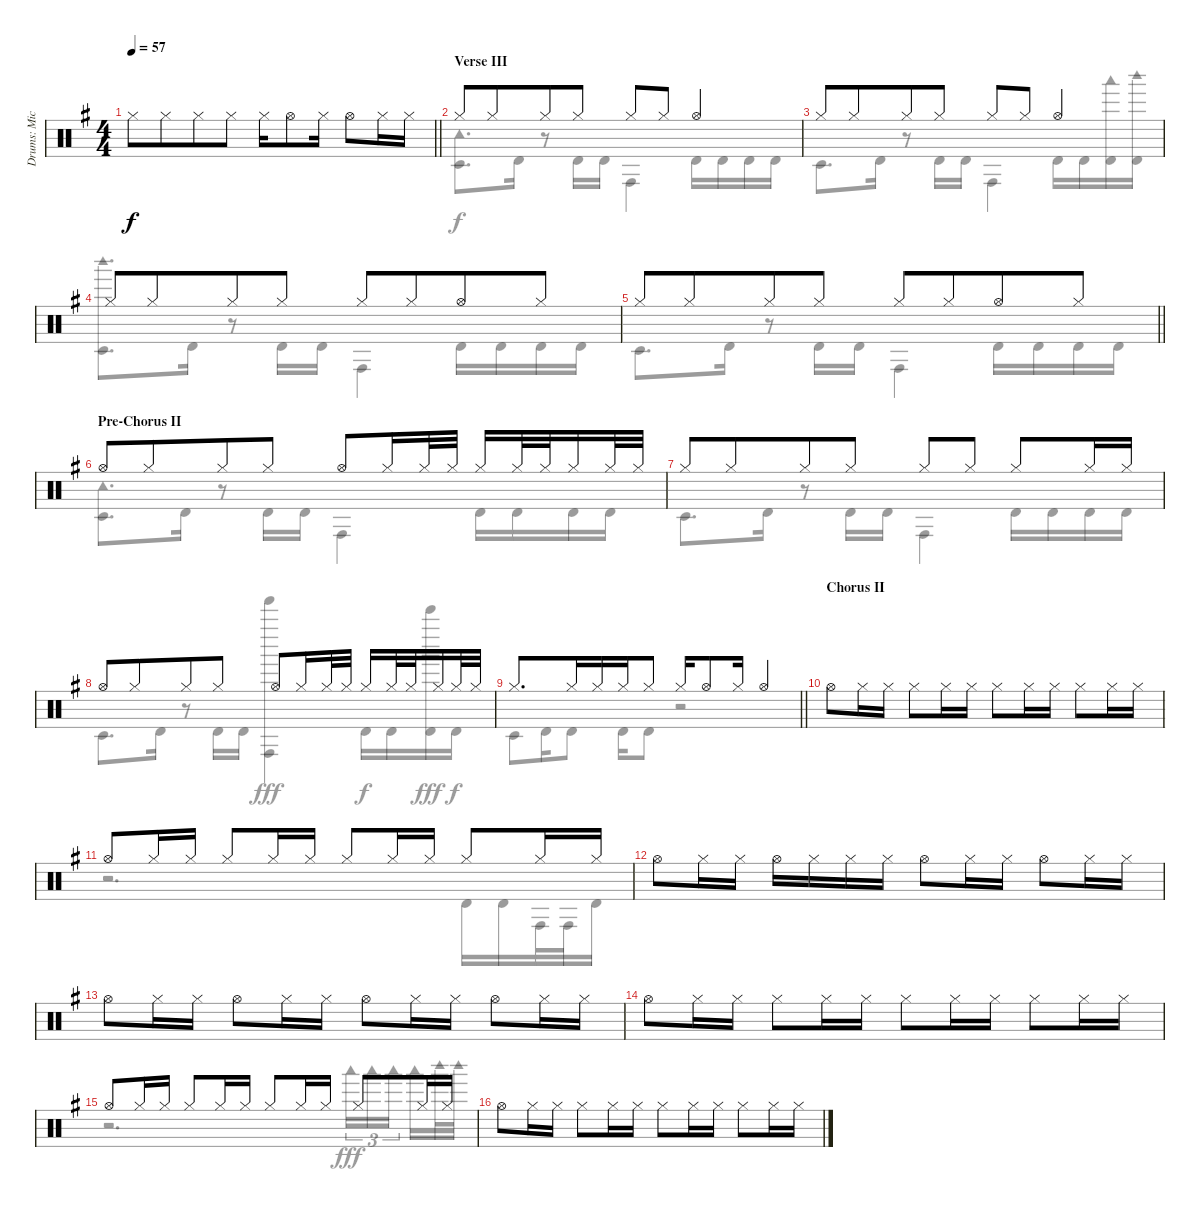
\track ("Drums: Mick" "Drums: Mic") {instrument percussion}
\staff {score}
\articulation defaults
\voice
\ts (4 4)
\tempo 57
\clef neutral
\barLineRight lightlight
\ks g "Hi-Hat (closed)".8{dy f} "Hi-Hat (closed)".8{beam merge} "Hi-Hat (closed)".8 "Hi-Hat (closed)".8 "Hi-Hat (closed)".16 "Hi-Hat (open)".8 "Hi-Hat (closed)".16 "Hi-Hat (open)".8 "Hi-Hat (closed)".16 "Hi-Hat (closed)".16
|
\section ("" "Verse III")
"Hi-Hat (closed)".8 "Hi-Hat (closed)".8{beam merge} "Hi-Hat (closed)".8 "Hi-Hat (closed)".8 "Hi-Hat (closed)".8 "Hi-Hat (closed)".8{beam merge} "Hi-Hat (open)".4 |
"Hi-Hat (closed)".8 "Hi-Hat (closed)".8{beam merge} "Hi-Hat (closed)".8 "Hi-Hat (closed)".8 "Hi-Hat (closed)".8 "Hi-Hat (closed)".8{beam merge} "Hi-Hat (open)".4 |
"Hi-Hat (closed)".8 "Hi-Hat (closed)".8{beam merge} "Hi-Hat (closed)".8 "Hi-Hat (closed)".8 "Hi-Hat (closed)".8 "Hi-Hat (closed)".8{beam merge} "Hi-Hat (open)".8 "Hi-Hat (closed)".8 |
\barLineRight lightlight "Hi-Hat (closed)".8 "Hi-Hat (closed)".8{beam merge} "Hi-Hat (closed)".8 "Hi-Hat (closed)".8 "Hi-Hat (closed)".8 "Hi-Hat (closed)".8{beam merge} "Hi-Hat (open)".8 "Hi-Hat (closed)".8
|
\section ("" "Pre-Chorus II")
"Hi-Hat (open)".8 "Hi-Hat (closed)".8{beam merge} "Hi-Hat (closed)".8 "Hi-Hat (closed)".8 "Hi-Hat (open)".8 "Hi-Hat (closed)".16{beam merge} "Hi-Hat (closed)".32 "Hi-Hat (closed)".32 "Hi-Hat (closed)".16 "Hi-Hat (closed)".32 "Hi-Hat (closed)".32 "Hi-Hat (closed)".16 "Hi-Hat (closed)".32 "Hi-Hat (closed)".32 |
"Hi-Hat (closed)".8 "Hi-Hat (closed)".8{beam merge} "Hi-Hat (closed)".8 "Hi-Hat (closed)".8 "Hi-Hat (closed)".8 "Hi-Hat (closed)".8 "Hi-Hat (closed)".8 "Hi-Hat (closed)".16 "Hi-Hat (closed)".16 |
"Hi-Hat (open)".8 "Hi-Hat (closed)".8{beam merge} "Hi-Hat (closed)".8 "Hi-Hat (closed)".8 "Hi-Hat (open)".8 "Hi-Hat (closed)".16{beam merge} "Hi-Hat (closed)".32 "Hi-Hat (closed)".32 "Hi-Hat (closed)".16 "Hi-Hat (closed)".32 "Hi-Hat (closed)".32 "Hi-Hat (closed)".16 "Hi-Hat (closed)".32 "Hi-Hat (closed)".32 |
\barLineRight lightlight "Hi-Hat (closed)".8{d} "Hi-Hat (closed)".16{beam merge} "Hi-Hat (closed)".16 "Hi-Hat (closed)".16 "Hi-Hat (closed)".8 "Hi-Hat (closed)".16 "Hi-Hat (open)".8 "Hi-Hat (closed)".16 "Hi-Hat (open)".4
|
\section ("" "Chorus II")
"Hi-Hat (open)".8 "Hi-Hat (closed)".16 "Hi-Hat (closed)".16 "Hi-Hat (closed)".8 "Hi-Hat (closed)".16 "Hi-Hat (closed)".16 "Hi-Hat (closed)".8 "Hi-Hat (closed)".16 "Hi-Hat (closed)".16 "Hi-Hat (closed)".8 "Hi-Hat (closed)".16 "Hi-Hat (closed)".16 |
"Hi-Hat (open)".8 "Hi-Hat (closed)".16 "Hi-Hat (closed)".16 "Hi-Hat (closed)".8 "Hi-Hat (closed)".16 "Hi-Hat (closed)".16 "Hi-Hat (closed)".8 "Hi-Hat (closed)".16 "Hi-Hat (closed)".16 "Hi-Hat (closed)".8 "Hi-Hat (closed)".16 "Hi-Hat (closed)".16 |
"Hi-Hat (open)".8 "Hi-Hat (closed)".16 "Hi-Hat (closed)".16 "Hi-Hat (open)".16 "Hi-Hat (closed)".16 "Hi-Hat (closed)".16 "Hi-Hat (closed)".16 "Hi-Hat (open)".8 "Hi-Hat (closed)".16 "Hi-Hat (closed)".16 "Hi-Hat (open)".8 "Hi-Hat (closed)".16 "Hi-Hat (closed)".16 |
"Hi-Hat (open)".8 "Hi-Hat (closed)".16 "Hi-Hat (closed)".16 "Hi-Hat (open)".8 "Hi-Hat (closed)".16 "Hi-Hat (closed)".16 "Hi-Hat (open)".8 "Hi-Hat (closed)".16 "Hi-Hat (closed)".16 "Hi-Hat (open)".8 "Hi-Hat (closed)".16 "Hi-Hat (closed)".16 |
"Hi-Hat (open)".8 "Hi-Hat (closed)".16 "Hi-Hat (closed)".16 "Hi-Hat (closed)".8 "Hi-Hat (closed)".16 "Hi-Hat (closed)".16 "Hi-Hat (closed)".8 "Hi-Hat (closed)".16 "Hi-Hat (closed)".16 "Hi-Hat (closed)".8 "Hi-Hat (closed)".16 "Hi-Hat (closed)".16 |
"Hi-Hat (open)".8 "Hi-Hat (closed)".16 "Hi-Hat (closed)".16 "Hi-Hat (closed)".8 "Hi-Hat (closed)".16 "Hi-Hat (closed)".16 "Hi-Hat (closed)".8 "Hi-Hat (closed)".16 "Hi-Hat (closed)".16 "Hi-Hat (closed)".8 "Hi-Hat (closed)".16 "Hi-Hat (closed)".16 |
"Hi-Hat (open)".8 "Hi-Hat (closed)".16 "Hi-Hat (closed)".16 "Hi-Hat (closed)".8 "Hi-Hat (closed)".16 "Hi-Hat (closed)".16 "Hi-Hat (closed)".8 "Hi-Hat (closed)".16 "Hi-Hat (closed)".16 "Hi-Hat (closed)".8 "Hi-Hat (closed)".16 "Hi-Hat (closed)".16
\voice
\clef neutral
\ottava regular
\simile none
\barLineRight lightlight
\ks g
|
("Tambourine (hit)" "Timbale low (hit)").8{d} "Timbale high (hit)".16 r.8 "Timbale high (hit)".16 "Timbale high (hit)".16 "Conga high (hit)".4 "Timbale high (hit)".16 "Timbale high (hit)".16 "Timbale high (hit)".16 "Timbale high (hit)".16 |
"Timbale low (hit)".8{d} "Timbale high (hit)".16 r.8 "Timbale high (hit)".16 "Timbale high (hit)".16 "Conga high (hit)".4 "Timbale high (hit)".16 "Timbale high (hit)".16 ("Woodblock low (hit)" "Timbale high (hit)").16 ("Woodblock high (hit)" "Timbale high (hit)").16 |
("Woodblock high (hit)" "Timbale low (hit)").8{d} "Timbale high (hit)".16 r.8 "Timbale high (hit)".16 "Timbale high (hit)".16 "Conga high (hit)".4 "Timbale high (hit)".16 "Timbale high (hit)".16 "Timbale high (hit)".16 "Timbale high (hit)".16 |
\barLineRight lightlight "Timbale low (hit)".8{d} "Timbale high (hit)".16
r.8 "Timbale high (hit)".16 "Timbale high (hit)".16 "Conga high (hit)".4 "Timbale high (hit)".16 "Timbale high (hit)".16 "Timbale high (hit)".16 "Timbale high (hit)".16 |
("Tambourine (hit)" "Timbale low (hit)").8{d} "Timbale high (hit)".16 r.8 "Timbale high (hit)".16 "Timbale high (hit)".16 "Conga high (hit)".4 "Timbale high (hit)".16 "Timbale high (hit)".16 "Timbale high (hit)".16 "Timbale high (hit)".16 |
"Timbale low (hit)".8{d} "Timbale high (hit)".16 r.8 "Timbale high (hit)".16 "Timbale high (hit)".16 "Conga high (hit)".4 "Timbale high (hit)".16 "Timbale high (hit)".16 "Timbale high (hit)".16 "Timbale high (hit)".16 |
"Timbale low (hit)".8{d} "Timbale high (hit)".16 r.8 "Timbale high (hit)".16 "Timbale high (hit)".16 ("Tinkle Bell (hit)" "Conga high (hit)").4{dy fff} "Timbale high (hit)".16{dy f} "Timbale high (hit)".16 ("Bell Tree (hit)" "Timbale high (hit)").16{dy fff} "Timbale high (hit)".16{dy f} |
\barLineRight lightlight "Timbale low (hit)".8 "Timbale high (hit)".16 "Timbale high (hit)".8 "Timbale high (hit)".16 "Timbale high (hit)".8
r.2 |
|
r.2{d} "Timbale high (hit)".16 "Timbale high (hit)".16 "Conga high (hit)".32 "Conga high (hit)".32 "Timbale high (hit)".16 |
|
|
|
r.2{d} "Woodblock low (hit)".16{tu (3 2) dy fff} "Woodblock low (hit)".16{tu (3 2)} "Woodblock low (hit)".16{tu (3 2) beam splitsecondary} "Woodblock low (hit)".16 "Woodblock high (hit)".32 "Woodblock high (hit)".32 |
